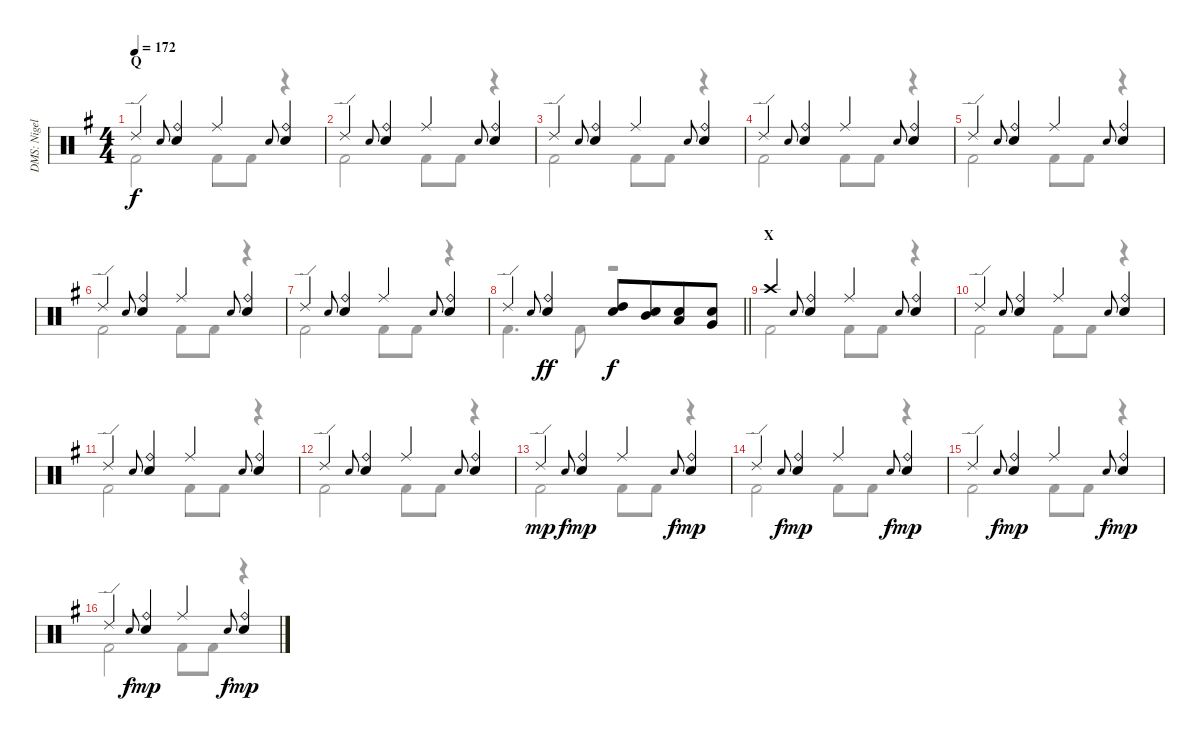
\track ("DMS: Nigel Olsson" "DMS: Nigel") {instrument percussion}
\staff {score}
\articulation defaults
\voice
\ts (4 4)
\section ("" "Q")
\tempo 172
\clef neutral
\ks g "Ride (edge) 2".4{dy f} "Snare (hit) 2".8{gr onbeat}
("Ride (bell)" "Electric Snare (hit)").4 "Ride (middle)".4 "Snare (hit) 2".8{gr onbeat} ("Ride (bell)" "Electric Snare (hit)").4 |
"Ride (edge) 2".4 "Snare (hit) 2".8{gr onbeat} ("Ride (bell)" "Electric Snare (hit)").4 "Ride (middle)".4 "Snare (hit) 2".8{gr onbeat} ("Ride (bell)" "Electric Snare (hit)").4 |
"Ride (edge) 2".4 "Snare (hit) 2".8{gr onbeat} ("Ride (bell)" "Electric Snare (hit)").4 "Ride (middle)".4 "Snare (hit) 2".8{gr onbeat} ("Ride (bell)" "Electric Snare (hit)").4 |
"Ride (edge) 2".4 "Snare (hit) 2".8{gr onbeat} ("Ride (bell)" "Electric Snare (hit)").4 "Ride (middle)".4 "Snare (hit) 2".8{gr onbeat} ("Ride (bell)" "Electric Snare (hit)").4 |
"Ride (edge) 2".4 "Snare (hit) 2".8{gr onbeat} ("Ride (bell)" "Electric Snare (hit)").4 "Ride (middle)".4 "Snare (hit) 2".8{gr onbeat} ("Ride (bell)" "Electric Snare (hit)").4 |
"Ride (edge) 2".4 "Snare (hit) 2".8{gr onbeat} ("Ride (bell)" "Electric Snare (hit)").4 "Ride (middle)".4 "Snare (hit) 2".8{gr onbeat} ("Ride (bell)" "Electric Snare (hit)").4 |
"Ride (edge) 2".4 "Snare (hit) 2".8{gr onbeat} ("Ride (bell)" "Electric Snare (hit)").4 "Ride (middle)".4 "Snare (hit) 2".8{gr onbeat} ("Ride (bell)" "Electric Snare (hit)").4 |
\barLineRight lightlight "Ride (edge) 2".4 "Snare (hit) 2".8{gr onbeat}
("Ride (bell)" "Electric Snare (hit)").4{dy ff} ("Electric Snare (hit)" "High Tom (hit)").8{dy f} ("Electric Snare (hit)" "Mid Tom (hit)").8{beam merge} ("Electric Snare (hit)" "Low Tom (hit)").8 ("Electric Snare (hit)" "Very Low Tom (hit)").8 |
\section ("" "X")
"Crash high (hit)".4 "Snare (hit) 2".8{gr onbeat} ("Ride (bell)" "Electric Snare (hit)").4 "Ride (middle)".4 "Snare (hit) 2".8{gr onbeat} ("Ride (bell)" "Electric Snare (hit)").4 |
"Ride (edge) 2".4 "Snare (hit) 2".8{gr onbeat} ("Ride (bell)" "Electric Snare (hit)").4 "Ride (middle)".4 "Snare (hit) 2".8{gr onbeat} ("Ride (bell)" "Electric Snare (hit)").4 |
"Ride (edge) 2".4 "Snare (hit) 2".8{gr onbeat} ("Ride (bell)" "Electric Snare (hit)").4 "Ride (middle)".4 "Snare (hit) 2".8{gr onbeat} ("Ride (bell)" "Electric Snare (hit)").4 |
"Ride (edge) 2".4 "Snare (hit) 2".8{gr onbeat} ("Ride (bell)" "Electric Snare (hit)").4 "Ride (middle)".4 "Snare (hit) 2".8{gr onbeat} ("Ride (bell)" "Electric Snare (hit)").4 |
"Ride (edge) 2".4{dy mp} "Snare (hit) 2".8{gr onbeat dy f} ("Ride (bell)" "Electric Snare (hit)").4{dy mp} "Ride (middle)".4 "Snare (hit) 2".8{gr onbeat dy f} ("Ride (bell)" "Electric Snare (hit)").4{dy mp} |
"Ride (edge) 2".4 "Snare (hit) 2".8{gr onbeat dy f} ("Ride (bell)" "Electric Snare (hit)").4{dy mp} "Ride (middle)".4 "Snare (hit) 2".8{gr onbeat dy f} ("Ride (bell)" "Electric Snare (hit)").4{dy mp} |
"Ride (edge) 2".4 "Snare (hit) 2".8{gr onbeat dy f} ("Ride (bell)" "Electric Snare (hit)").4{dy mp} "Ride (middle)".4 "Snare (hit) 2".8{gr onbeat dy f} ("Ride (bell)" "Electric Snare (hit)").4{dy mp} |
"Ride (edge) 2".4 "Snare (hit) 2".8{gr onbeat dy f} ("Ride (bell)" "Electric Snare (hit)").4{dy mp} "Ride (middle)".4 "Snare (hit) 2".8{gr onbeat dy f} ("Ride (bell)" "Electric Snare (hit)").4{dy mp}
\voice
\clef neutral
\ottava regular
\simile none
\ks g "Kick (hit) 2".2{dy f} "Kick (hit) 2".8 "Kick (hit) 2".8
r.4 |
"Kick (hit) 2".2 "Kick (hit) 2".8 "Kick (hit) 2".8 r.4 |
"Kick (hit) 2".2 "Kick (hit) 2".8 "Kick (hit) 2".8 r.4 |
"Kick (hit) 2".2 "Kick (hit) 2".8 "Kick (hit) 2".8 r.4 |
"Kick (hit) 2".2 "Kick (hit) 2".8 "Kick (hit) 2".8 r.4 |
"Kick (hit) 2".2 "Kick (hit) 2".8 "Kick (hit) 2".8 r.4 |
"Kick (hit) 2".2 "Kick (hit) 2".8 "Kick (hit) 2".8 r.4 |
\barLineRight lightlight "Kick (hit) 2".4{d} "Kick (hit) 2".8
r.2 |
"Kick (hit) 2".2 "Kick (hit) 2".8 "Kick (hit) 2".8 r.4 |
"Kick (hit) 2".2 "Kick (hit) 2".8 "Kick (hit) 2".8 r.4 |
"Kick (hit) 2".2 "Kick (hit) 2".8 "Kick (hit) 2".8 r.4 |
"Kick (hit) 2".2 "Kick (hit) 2".8 "Kick (hit) 2".8 r.4 |
"Kick (hit) 2".2{dy mp} "Kick (hit) 2".8 "Kick (hit) 2".8 r.4 |
"Kick (hit) 2".2 "Kick (hit) 2".8 "Kick (hit) 2".8 r.4 |
"Kick (hit) 2".2 "Kick (hit) 2".8 "Kick (hit) 2".8 r.4 |
"Kick (hit) 2".2 "Kick (hit) 2".8 "Kick (hit) 2".8 r.4
